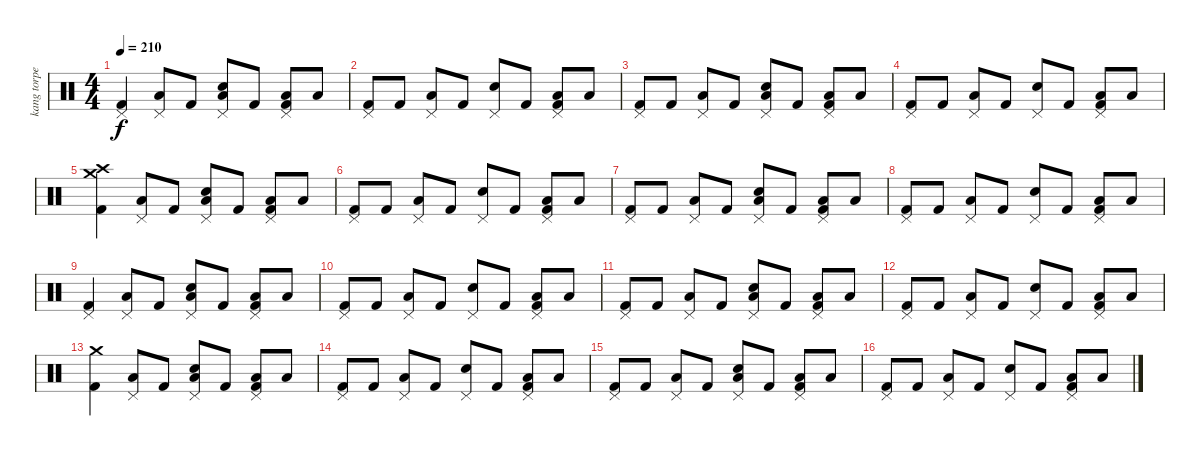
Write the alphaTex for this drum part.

\track ("kang torpey" "kang torpe") {instrument percussion}
\staff {score}
\articulation defaults
\ts (4 4)
\tempo 210
\clef neutral
\ks c
("Pedal Hi-Hat (hit)" "Kick (hit) 2").4{dy f} ("Pedal Hi-Hat (hit)" "Low Floor Tom (hit)").8 "Kick (hit) 2".8 ("Pedal Hi-Hat (hit)" "Low Floor Tom (hit)" "Electric Snare (hit)").8 "Kick (hit) 2".8 ("Pedal Hi-Hat (hit)" "Low Floor Tom (hit)" "Kick (hit) 2").8 "Low Floor Tom (hit)".8 |
("Pedal Hi-Hat (hit)" "Kick (hit) 2").8 "Kick (hit) 2".8 ("Pedal Hi-Hat (hit)" "Low Floor Tom (hit)").8 "Kick (hit) 2".8 ("Pedal Hi-Hat (hit)" "Electric Snare (hit)").8 "Kick (hit) 2".8 ("Pedal Hi-Hat (hit)" "Low Floor Tom (hit)" "Kick (hit) 2").8 "Low Floor Tom (hit)".8 |
("Pedal Hi-Hat (hit)" "Kick (hit) 2").8 "Kick (hit) 2".8 ("Pedal Hi-Hat (hit)" "Low Floor Tom (hit)").8 "Kick (hit) 2".8 ("Pedal Hi-Hat (hit)" "Low Floor Tom (hit)" "Electric Snare (hit)").8 "Kick (hit) 2".8 ("Pedal Hi-Hat (hit)" "Low Floor Tom (hit)" "Kick (hit) 2").8 "Low Floor Tom (hit)".8 |
("Pedal Hi-Hat (hit)" "Kick (hit) 2").8 "Kick (hit) 2".8 ("Pedal Hi-Hat (hit)" "Low Floor Tom (hit)").8 "Kick (hit) 2".8 ("Pedal Hi-Hat (hit)" "Electric Snare (hit)").8 "Kick (hit) 2".8 ("Pedal Hi-Hat (hit)" "Low Floor Tom (hit)" "Kick (hit) 2").8 "Low Floor Tom (hit)".8 |
("Crash medium (hit)" "Crash high (hit)" "Kick (hit) 2").4 ("Pedal Hi-Hat (hit)" "Low Floor Tom (hit)").8 "Kick (hit) 2".8 ("Pedal Hi-Hat (hit)" "Low Floor Tom (hit)" "Electric Snare (hit)").8 "Kick (hit) 2".8 ("Pedal Hi-Hat (hit)" "Low Floor Tom (hit)" "Kick (hit) 2").8 "Low Floor Tom (hit)".8 |
("Pedal Hi-Hat (hit)" "Kick (hit) 2").8 "Kick (hit) 2".8 ("Pedal Hi-Hat (hit)" "Low Floor Tom (hit)").8 "Kick (hit) 2".8 ("Pedal Hi-Hat (hit)" "Electric Snare (hit)").8 "Kick (hit) 2".8 ("Pedal Hi-Hat (hit)" "Low Floor Tom (hit)" "Kick (hit) 2").8 "Low Floor Tom (hit)".8 |
("Pedal Hi-Hat (hit)" "Kick (hit) 2").8 "Kick (hit) 2".8 ("Pedal Hi-Hat (hit)" "Low Floor Tom (hit)").8 "Kick (hit) 2".8 ("Pedal Hi-Hat (hit)" "Low Floor Tom (hit)" "Electric Snare (hit)").8 "Kick (hit) 2".8 ("Pedal Hi-Hat (hit)" "Low Floor Tom (hit)" "Kick (hit) 2").8 "Low Floor Tom (hit)".8 |
("Pedal Hi-Hat (hit)" "Kick (hit) 2").8 "Kick (hit) 2".8 ("Pedal Hi-Hat (hit)" "Low Floor Tom (hit)").8 "Kick (hit) 2".8 ("Pedal Hi-Hat (hit)" "Electric Snare (hit)").8 "Kick (hit) 2".8 ("Pedal Hi-Hat (hit)" "Low Floor Tom (hit)" "Kick (hit) 2").8 "Low Floor Tom (hit)".8 |
("Pedal Hi-Hat (hit)" "Kick (hit) 2").4 ("Pedal Hi-Hat (hit)" "Low Floor Tom (hit)").8 "Kick (hit) 2".8 ("Pedal Hi-Hat (hit)" "Low Floor Tom (hit)" "Electric Snare (hit)").8 "Kick (hit) 2".8 ("Pedal Hi-Hat (hit)" "Low Floor Tom (hit)" "Kick (hit) 2").8 "Low Floor Tom (hit)".8 |
("Pedal Hi-Hat (hit)" "Kick (hit) 2").8 "Kick (hit) 2".8 ("Pedal Hi-Hat (hit)" "Low Floor Tom (hit)").8 "Kick (hit) 2".8 ("Pedal Hi-Hat (hit)" "Electric Snare (hit)").8 "Kick (hit) 2".8 ("Pedal Hi-Hat (hit)" "Low Floor Tom (hit)" "Kick (hit) 2").8 "Low Floor Tom (hit)".8 |
("Pedal Hi-Hat (hit)" "Kick (hit) 2").8 "Kick (hit) 2".8 ("Pedal Hi-Hat (hit)" "Low Floor Tom (hit)").8 "Kick (hit) 2".8 ("Pedal Hi-Hat (hit)" "Low Floor Tom (hit)" "Electric Snare (hit)").8 "Kick (hit) 2".8 ("Pedal Hi-Hat (hit)" "Low Floor Tom (hit)" "Kick (hit) 2").8 "Low Floor Tom (hit)".8 |
("Pedal Hi-Hat (hit)" "Kick (hit) 2").8 "Kick (hit) 2".8 ("Pedal Hi-Hat (hit)" "Low Floor Tom (hit)").8 "Kick (hit) 2".8 ("Pedal Hi-Hat (hit)" "Electric Snare (hit)").8 "Kick (hit) 2".8 ("Pedal Hi-Hat (hit)" "Low Floor Tom (hit)" "Kick (hit) 2").8 "Low Floor Tom (hit)".8 |
("Crash medium (hit)" "Kick (hit) 2").4 ("Pedal Hi-Hat (hit)" "Low Floor Tom (hit)").8 "Kick (hit) 2".8 ("Pedal Hi-Hat (hit)" "Low Floor Tom (hit)" "Electric Snare (hit)").8 "Kick (hit) 2".8 ("Pedal Hi-Hat (hit)" "Low Floor Tom (hit)" "Kick (hit) 2").8 "Low Floor Tom (hit)".8 |
("Pedal Hi-Hat (hit)" "Kick (hit) 2").8 "Kick (hit) 2".8 ("Pedal Hi-Hat (hit)" "Low Floor Tom (hit)").8 "Kick (hit) 2".8 ("Pedal Hi-Hat (hit)" "Electric Snare (hit)").8 "Kick (hit) 2".8 ("Pedal Hi-Hat (hit)" "Low Floor Tom (hit)" "Kick (hit) 2").8 "Low Floor Tom (hit)".8 |
("Pedal Hi-Hat (hit)" "Kick (hit) 2").8 "Kick (hit) 2".8 ("Pedal Hi-Hat (hit)" "Low Floor Tom (hit)").8 "Kick (hit) 2".8 ("Pedal Hi-Hat (hit)" "Low Floor Tom (hit)" "Electric Snare (hit)").8 "Kick (hit) 2".8 ("Pedal Hi-Hat (hit)" "Low Floor Tom (hit)" "Kick (hit) 2").8 "Low Floor Tom (hit)".8 |
("Pedal Hi-Hat (hit)" "Kick (hit) 2").8 "Kick (hit) 2".8 ("Pedal Hi-Hat (hit)" "Low Floor Tom (hit)").8 "Kick (hit) 2".8 ("Pedal Hi-Hat (hit)" "Electric Snare (hit)").8 "Kick (hit) 2".8 ("Pedal Hi-Hat (hit)" "Low Floor Tom (hit)" "Kick (hit) 2").8 "Low Floor Tom (hit)".8
